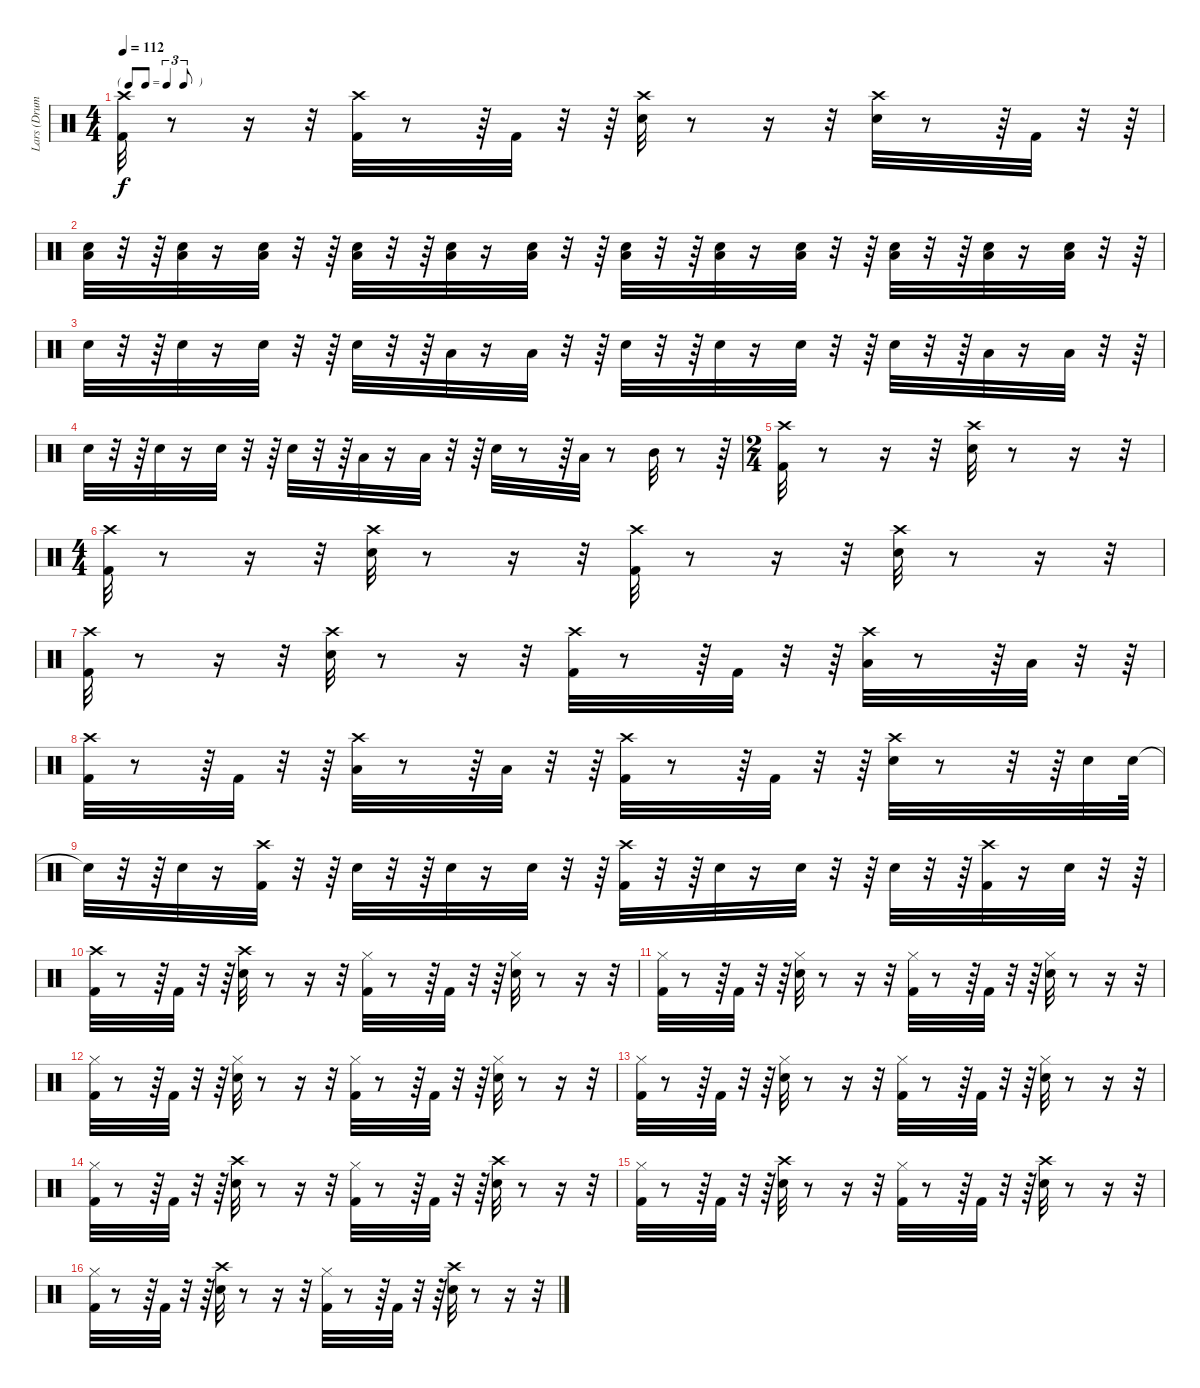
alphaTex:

\track ("Lars (Drums)" "Lars (Drum") {instrument percussion}
\staff {score}
\articulation defaults
\ts (4 4)
\tf triplet8th
\tempo 112
\clef neutral
\ks c
("Crash high (hit)" "Kick (hit) 2").32{dy f} r.8 r.16 r.32 ("Crash high (hit)" "Kick (hit) 2").32 r.8 r.64 "Kick (hit) 2".32 r.32 r.64 ("Snare (hit) 2" "Crash high (hit)").32 r.8 r.16 r.32 ("Snare (hit) 2" "Crash high (hit)").32 r.8 r.64 "Kick (hit) 2".32 r.32 r.64 |
("Low Floor Tom (hit)" "Snare (hit) 2").32 r.32 r.64 ("Low Floor Tom (hit)" "Snare (hit) 2").32 r.16 ("Low Floor Tom (hit)" "Snare (hit) 2").32 r.32 r.64 ("Low Floor Tom (hit)" "Snare (hit) 2").32 r.32 r.64 ("Low Floor Tom (hit)" "Snare (hit) 2").32 r.16 ("Low Floor Tom (hit)" "Snare (hit) 2").32 r.32 r.64 ("Low Floor Tom (hit)" "Snare (hit) 2").32 r.32 r.64 ("Low Floor Tom (hit)" "Snare (hit) 2").32 r.16 ("Low Floor Tom (hit)" "Snare (hit) 2").32 r.32 r.64 ("Low Floor Tom (hit)" "Snare (hit) 2").32 r.32 r.64 ("Low Floor Tom (hit)" "Snare (hit) 2").32 r.16 ("Low Floor Tom (hit)" "Snare (hit) 2").32 r.32 r.64 |
"Snare (hit) 2".32 r.32 r.64 "Snare (hit) 2".32 r.16 "Snare (hit) 2".32 r.32 r.64 "Snare (hit) 2".32 r.32 r.64 "Low Tom (hit)".32 r.16 "Low Tom (hit)".32 r.32 r.64 "Snare (hit) 2".32 r.32 r.64 "Snare (hit) 2".32 r.16 "Snare (hit) 2".32 r.32 r.64 "Snare (hit) 2".32 r.32 r.64 "Low Tom (hit)".32 r.16 "Low Tom (hit)".32 r.32 r.64 |
"Snare (hit) 2".32 r.32 r.64 "Snare (hit) 2".32 r.16 "Snare (hit) 2".32 r.32 r.64 "Snare (hit) 2".32 r.32 r.64 "Low Tom (hit)".32 r.16 "Low Tom (hit)".32 r.32 r.64 "Snare (hit) 2".32 r.8 r.64 "Low Tom (hit)".32 r.8 "Mid Tom (hit)".32 r.8 r.64 |
\ts (2 4)
("Crash high (hit)" "Kick (hit) 2").32 r.8 r.16 r.32 ("Crash high (hit)" "Snare (hit) 2").32 r.8 r.16 r.32 |
\ts (4 4)
("Crash high (hit)" "Kick (hit) 2").32 r.8 r.16 r.32 ("Snare (hit) 2" "Crash high (hit)").32 r.8 r.16 r.32 ("Kick (hit) 2" "Crash high (hit)").32 r.8 r.16 r.32 ("Snare (hit) 2" "Crash high (hit)").32 r.8 r.16 r.32 |
("Crash high (hit)" "Kick (hit) 2").32 r.8 r.16 r.32 ("Snare (hit) 2" "Crash high (hit)").32 r.8 r.16 r.32 ("Crash high (hit)" "Kick (hit) 2").32 r.8 r.64 "Kick (hit) 2".32 r.32 r.64 ("Low Tom (hit)" "Crash high (hit)").32 r.8 r.64 "Low Tom (hit)".32 r.32 r.64 |
("Crash high (hit)" "Kick (hit) 2").32 r.8 r.64 "Kick (hit) 2".32 r.32 r.64 ("Low Tom (hit)" "Crash high (hit)").32 r.8 r.64 "Low Tom (hit)".32 r.32 r.64 ("Crash high (hit)" "Kick (hit) 2").32 r.8 r.64 "Kick (hit) 2".32 r.32 r.64 ("Snare (hit) 2" "Crash high (hit)").32 r.8 r.32 r.64 "Snare (hit) 2".32 "Snare (hit) 2".64 |
"Snare (hit)"{t}.32 r.32 r.64 "Snare (hit) 2".32 r.16 ("Crash high (hit)" "Kick (hit) 2").32 r.32 r.64 "Snare (hit) 2".32 r.32 r.64 "Snare (hit) 2".32 r.16 "Snare (hit) 2".32 r.32 r.64 ("Crash high (hit)" "Kick (hit) 2").32 r.32 r.64 "Snare (hit) 2".32 r.16 "Snare (hit) 2".32 r.32 r.64 "Snare (hit) 2".32 r.32 r.64 ("Crash high (hit)" "Kick (hit) 2").32 r.16 "Snare (hit) 2".32 r.32 r.64 |
("Crash high (hit)" "Kick (hit) 2").32 r.8 r.64 "Kick (hit) 2".32 r.32 r.64 ("Snare (hit) 2" "Crash high (hit)").32 r.8 r.16 r.32 ("Hi-Hat (closed)" "Kick (hit) 2").32 r.8 r.64 "Kick (hit) 2".32 r.32 r.64 ("Snare (hit) 2" "Hi-Hat (closed)").32 r.8 r.16 r.32 |
("Hi-Hat (closed)" "Kick (hit) 2").32 r.8 r.64 "Kick (hit) 2".32 r.32 r.64 ("Hi-Hat (closed)" "Snare (hit) 2").32 r.8 r.16 r.32 ("Hi-Hat (closed)" "Kick (hit) 2").32 r.8 r.64 "Kick (hit) 2".32 r.32 r.64 ("Snare (hit) 2" "Hi-Hat (closed)").32 r.8 r.16 r.32 |
("Hi-Hat (closed)" "Kick (hit) 2").32 r.8 r.64 "Kick (hit) 2".32 r.32 r.64 ("Hi-Hat (closed)" "Snare (hit) 2").32 r.8 r.16 r.32 ("Hi-Hat (closed)" "Kick (hit) 2").32 r.8 r.64 "Kick (hit) 2".32 r.32 r.64 ("Snare (hit) 2" "Hi-Hat (closed)").32 r.8 r.16 r.32 |
("Hi-Hat (closed)" "Kick (hit) 2").32 r.8 r.64 "Kick (hit) 2".32 r.32 r.64 ("Hi-Hat (closed)" "Snare (hit) 2").32 r.8 r.16 r.32 ("Hi-Hat (closed)" "Kick (hit) 2").32 r.8 r.64 "Kick (hit) 2".32 r.32 r.64 ("Snare (hit) 2" "Hi-Hat (closed)").32 r.8 r.16 r.32 |
("Hi-Hat (closed)" "Kick (hit) 2").32 r.8 r.64 "Kick (hit) 2".32 r.32 r.64 ("Crash high (hit)" "Snare (hit) 2").32 r.8 r.16 r.32 ("Hi-Hat (closed)" "Kick (hit) 2").32 r.8 r.64 "Kick (hit) 2".32 r.32 r.64 ("Snare (hit) 2" "Crash high (hit)").32 r.8 r.16 r.32 |
("Hi-Hat (closed)" "Kick (hit) 2").32 r.8 r.64 "Kick (hit) 2".32 r.32 r.64 ("Crash high (hit)" "Snare (hit) 2").32 r.8 r.16 r.32 ("Hi-Hat (closed)" "Kick (hit) 2").32 r.8 r.64 "Kick (hit) 2".32 r.32 r.64 ("Snare (hit) 2" "Crash high (hit)").32 r.8 r.16 r.32 |
("Hi-Hat (closed)" "Kick (hit) 2").32 r.8 r.64 "Kick (hit) 2".32 r.32 r.64 ("Crash high (hit)" "Snare (hit) 2").32 r.8 r.16 r.32 ("Hi-Hat (closed)" "Kick (hit) 2").32 r.8 r.64 "Kick (hit) 2".32 r.32 r.64 ("Snare (hit) 2" "Crash high (hit)").32 r.8 r.16 r.32
